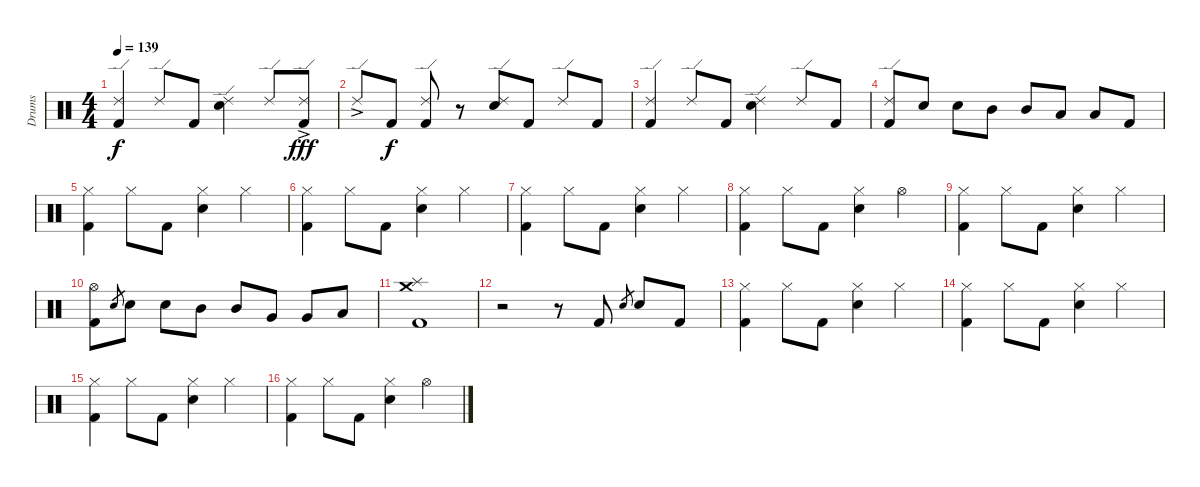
\track ("Drums" "Drums") {instrument percussion}
\staff {score}
\articulation defaults
\ts (4 4)
\tempo 139
\clef neutral
\ks c
("Ride (edge) 2" "Kick (hit) 2").4{dy f} "Ride (edge) 2".8 "Kick (hit) 2".8 ("Ride (edge) 2" "Electric Snare (hit)").4 "Ride (edge) 2".8 ("Ride (edge) 2"{ac} "Kick (hit) 2").8{dy fff} |
"Ride (edge) 2"{ac}.8 "Kick (hit) 2".8{dy f} ("Ride (edge) 2" "Kick (hit) 2").8 r.8 ("Ride (edge) 2" "Electric Snare (hit)").8 "Kick (hit) 2".8 "Ride (edge) 2".8 "Kick (hit) 2".8 |
("Ride (edge) 2" "Kick (hit) 2").4 "Ride (edge) 2".8 "Kick (hit) 2".8 ("Ride (edge) 2" "Electric Snare (hit)").4 "Ride (edge) 2".8 "Kick (hit) 2".8 |
("Ride (edge) 2" "Kick (hit) 2").8 "Electric Snare (hit)".8 "Electric Snare (hit)".8 "Mid Tom (hit)".8 "Mid Tom (hit)".8 "Low Floor Tom (hit)".8 "Low Floor Tom (hit)".8 "Kick (hit) 2".8 |
("Hi-Hat (closed)" "Kick (hit) 2").4 "Hi-Hat (closed)".8 "Kick (hit) 2".8 ("Hi-Hat (closed)" "Electric Snare (hit)").4 "Hi-Hat (closed)".4 |
("Hi-Hat (closed)" "Kick (hit) 2").4 "Hi-Hat (closed)".8 "Kick (hit) 2".8 ("Hi-Hat (closed)" "Electric Snare (hit)").4 "Hi-Hat (closed)".4 |
("Hi-Hat (closed)" "Kick (hit) 2").4 "Hi-Hat (closed)".8 "Kick (hit) 2".8 ("Hi-Hat (closed)" "Electric Snare (hit)").4 "Hi-Hat (closed)".4 |
("Hi-Hat (closed)" "Kick (hit) 2").4 "Hi-Hat (closed)".8 "Kick (hit) 2".8 ("Hi-Hat (closed)" "Electric Snare (hit)").4 "Hi-Hat (open)".4 |
("Hi-Hat (closed)" "Kick (hit) 2").4 "Hi-Hat (closed)".8 "Kick (hit) 2".8 ("Hi-Hat (closed)" "Electric Snare (hit)").4 "Hi-Hat (closed)".4 |
("Hi-Hat (open)" "Kick (hit) 2").8 "Electric Snare (hit)".8{gr} "Electric Snare (hit)".8 "Electric Snare (hit)".8 "Mid Tom (hit)".8 "Mid Tom (hit)".8 "Very Low Tom (hit)".8 "Very Low Tom (hit)".8 "Low Floor Tom (hit)".8 |
("Crash medium (hit)" "Splash (hit)" "Kick (hit) 2").1 |
r.2 r.8 "Kick (hit) 2".8 "Electric Snare (hit)".8{gr} "Electric Snare (hit)".8 "Kick (hit) 2".8 |
("Hi-Hat (closed)" "Kick (hit) 2").4 "Hi-Hat (closed)".8 "Kick (hit) 2".8 ("Hi-Hat (closed)" "Electric Snare (hit)").4 "Hi-Hat (closed)".4 |
("Hi-Hat (closed)" "Kick (hit) 2").4 "Hi-Hat (closed)".8 "Kick (hit) 2".8 ("Hi-Hat (closed)" "Electric Snare (hit)").4 "Hi-Hat (closed)".4 |
("Hi-Hat (closed)" "Kick (hit) 2").4 "Hi-Hat (closed)".8 "Kick (hit) 2".8 ("Hi-Hat (closed)" "Electric Snare (hit)").4 "Hi-Hat (closed)".4 |
("Hi-Hat (closed)" "Kick (hit) 2").4 "Hi-Hat (closed)".8 "Kick (hit) 2".8 ("Hi-Hat (closed)" "Electric Snare (hit)").4 "Hi-Hat (open)".4
